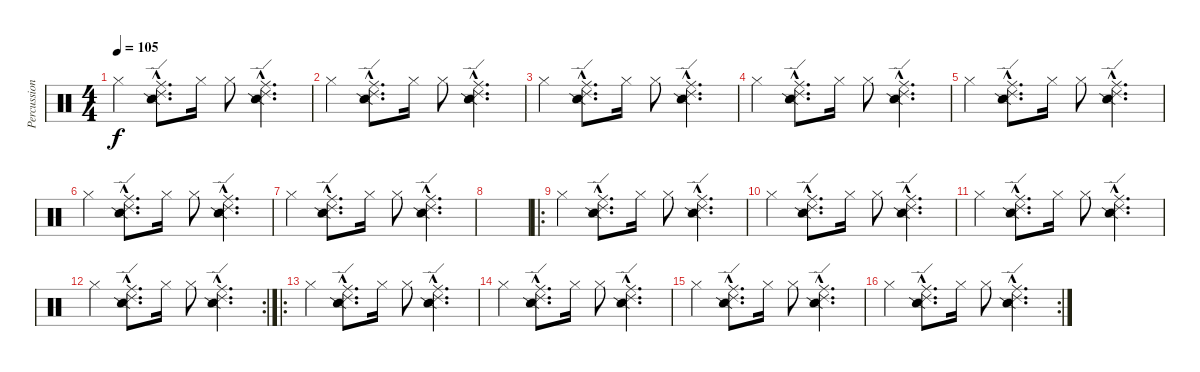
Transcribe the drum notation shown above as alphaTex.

\track ("Percussion" "Percussion") {instrument percussion}
\staff {score}
\articulation defaults
\ts (4 4)
\tempo 105
\clef neutral
\ks c "Hi-Hat (closed)".4{dy f}
("Snare (side stick) 2"{hac} "Ride (middle)"{hac} "Ride (edge) 2"{hac}).8{d} "Hi-Hat (closed)".16 "Hi-Hat (closed)".8 ("Snare (side stick) 2"{hac} "Ride (middle)"{hac} "Ride (edge) 2"{hac}).4{d} |
"Hi-Hat (closed)".4 ("Snare (side stick) 2"{hac} "Ride (middle)"{hac} "Ride (edge) 2"{hac}).8{d} "Hi-Hat (closed)".16 "Hi-Hat (closed)".8 ("Snare (side stick) 2"{hac} "Ride (middle)"{hac} "Ride (edge) 2"{hac}).4{d} |
"Hi-Hat (closed)".4 ("Snare (side stick) 2"{hac} "Ride (middle)"{hac} "Ride (edge) 2"{hac}).8{d} "Hi-Hat (closed)".16 "Hi-Hat (closed)".8 ("Snare (side stick) 2"{hac} "Ride (middle)"{hac} "Ride (edge) 2"{hac}).4{d} |
"Hi-Hat (closed)".4 ("Snare (side stick) 2"{hac} "Ride (middle)"{hac} "Ride (edge) 2"{hac}).8{d} "Hi-Hat (closed)".16 "Hi-Hat (closed)".8 ("Snare (side stick) 2"{hac} "Ride (middle)"{hac} "Ride (edge) 2"{hac}).4{d} |
"Hi-Hat (closed)".4 ("Snare (side stick) 2"{hac} "Ride (middle)"{hac} "Ride (edge) 2"{hac}).8{d} "Hi-Hat (closed)".16 "Hi-Hat (closed)".8 ("Snare (side stick) 2"{hac} "Ride (middle)"{hac} "Ride (edge) 2"{hac}).4{d} |
"Hi-Hat (closed)".4 ("Snare (side stick) 2"{hac} "Ride (middle)"{hac} "Ride (edge) 2"{hac}).8{d} "Hi-Hat (closed)".16 "Hi-Hat (closed)".8 ("Snare (side stick) 2"{hac} "Ride (middle)"{hac} "Ride (edge) 2"{hac}).4{d} |
"Hi-Hat (closed)".4 ("Snare (side stick) 2"{hac} "Ride (middle)"{hac} "Ride (edge) 2"{hac}).8{d} "Hi-Hat (closed)".16 "Hi-Hat (closed)".8 ("Snare (side stick) 2"{hac} "Ride (middle)"{hac} "Ride (edge) 2"{hac}).4{d} |
|
\ro "Hi-Hat (closed)".4
("Snare (side stick) 2"{hac} "Ride (middle)"{hac} "Ride (edge) 2"{hac}).8{d} "Hi-Hat (closed)".16 "Hi-Hat (closed)".8 ("Snare (side stick) 2"{hac} "Ride (middle)"{hac} "Ride (edge) 2"{hac}).4{d} |
"Hi-Hat (closed)".4 ("Snare (side stick) 2"{hac} "Ride (middle)"{hac} "Ride (edge) 2"{hac}).8{d} "Hi-Hat (closed)".16 "Hi-Hat (closed)".8 ("Snare (side stick) 2"{hac} "Ride (middle)"{hac} "Ride (edge) 2"{hac}).4{d} |
"Hi-Hat (closed)".4 ("Snare (side stick) 2"{hac} "Ride (middle)"{hac} "Ride (edge) 2"{hac}).8{d} "Hi-Hat (closed)".16 "Hi-Hat (closed)".8 ("Snare (side stick) 2"{hac} "Ride (middle)"{hac} "Ride (edge) 2"{hac}).4{d} |
\rc 2 "Hi-Hat (closed)".4
("Snare (side stick) 2"{hac} "Ride (middle)"{hac} "Ride (edge) 2"{hac}).8{d} "Hi-Hat (closed)".16 "Hi-Hat (closed)".8 ("Snare (side stick) 2"{hac} "Ride (middle)"{hac} "Ride (edge) 2"{hac}).4{d} |
\ro "Hi-Hat (closed)".4
("Snare (side stick) 2"{hac} "Ride (middle)"{hac} "Ride (edge) 2"{hac}).8{d} "Hi-Hat (closed)".16 "Hi-Hat (closed)".8 ("Snare (side stick) 2"{hac} "Ride (middle)"{hac} "Ride (edge) 2"{hac}).4{d} |
"Hi-Hat (closed)".4 ("Snare (side stick) 2"{hac} "Ride (middle)"{hac} "Ride (edge) 2"{hac}).8{d} "Hi-Hat (closed)".16 "Hi-Hat (closed)".8 ("Snare (side stick) 2"{hac} "Ride (middle)"{hac} "Ride (edge) 2"{hac}).4{d} |
"Hi-Hat (closed)".4 ("Snare (side stick) 2"{hac} "Ride (middle)"{hac} "Ride (edge) 2"{hac}).8{d} "Hi-Hat (closed)".16 "Hi-Hat (closed)".8 ("Snare (side stick) 2"{hac} "Ride (middle)"{hac} "Ride (edge) 2"{hac}).4{d} |
\rc 2 "Hi-Hat (closed)".4
("Snare (side stick) 2"{hac} "Ride (middle)"{hac} "Ride (edge) 2"{hac}).8{d} "Hi-Hat (closed)".16 "Hi-Hat (closed)".8 ("Snare (side stick) 2"{hac} "Ride (middle)"{hac} "Ride (edge) 2"{hac}).4{d}
